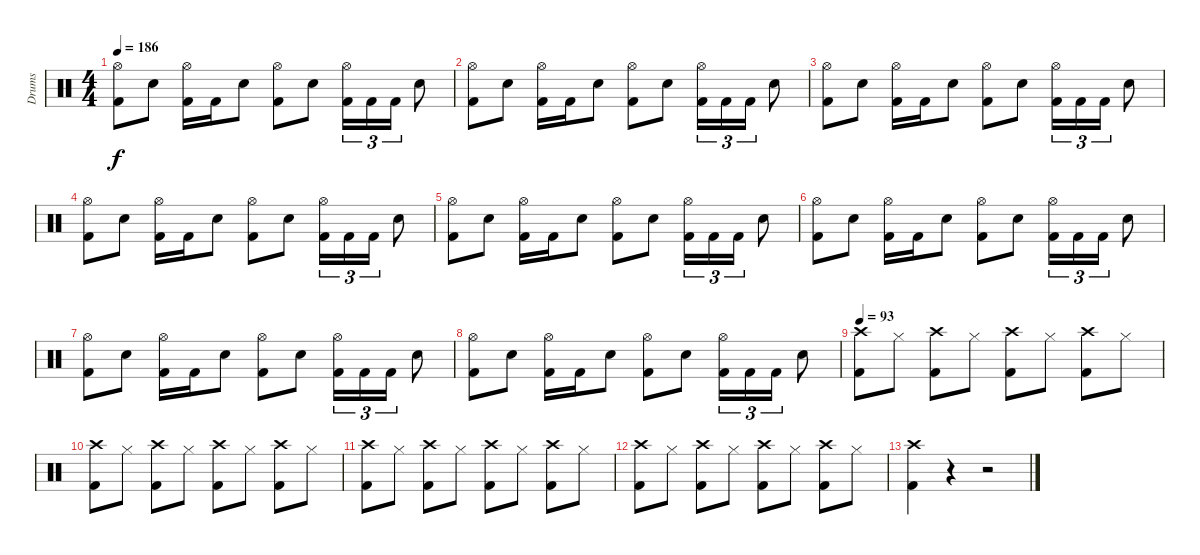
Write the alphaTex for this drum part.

\track ("Drums" "Drums") {instrument percussion}
\staff {score}
\articulation defaults
\ts (4 4)
\tempo 186
\clef neutral
\ks c
("Hi-Hat (open)" "Kick (hit) 2").8{dy f} "Snare (hit) 2".8 ("Hi-Hat (open)" "Kick (hit) 2").16 "Kick (hit) 2".16 "Snare (hit) 2".8 ("Hi-Hat (open)" "Kick (hit) 2").8 "Snare (hit) 2".8 ("Hi-Hat (open)" "Kick (hit) 2").16{tu (3 2)} "Kick (hit) 2".16{tu (3 2)} "Kick (hit) 2".16{tu (3 2)} "Snare (hit) 2".8 |
("Hi-Hat (open)" "Kick (hit) 2").8 "Snare (hit) 2".8 ("Hi-Hat (open)" "Kick (hit) 2").16 "Kick (hit) 2".16 "Snare (hit) 2".8 ("Hi-Hat (open)" "Kick (hit) 2").8 "Snare (hit) 2".8 ("Hi-Hat (open)" "Kick (hit) 2").16{tu (3 2)} "Kick (hit) 2".16{tu (3 2)} "Kick (hit) 2".16{tu (3 2)} "Snare (hit) 2".8 |
("Hi-Hat (open)" "Kick (hit) 2").8 "Snare (hit) 2".8 ("Hi-Hat (open)" "Kick (hit) 2").16 "Kick (hit) 2".16 "Snare (hit) 2".8 ("Hi-Hat (open)" "Kick (hit) 2").8 "Snare (hit) 2".8 ("Hi-Hat (open)" "Kick (hit) 2").16{tu (3 2)} "Kick (hit) 2".16{tu (3 2)} "Kick (hit) 2".16{tu (3 2)} "Snare (hit) 2".8 |
("Hi-Hat (open)" "Kick (hit) 2").8 "Snare (hit) 2".8 ("Hi-Hat (open)" "Kick (hit) 2").16 "Kick (hit) 2".16 "Snare (hit) 2".8 ("Hi-Hat (open)" "Kick (hit) 2").8 "Snare (hit) 2".8 ("Hi-Hat (open)" "Kick (hit) 2").16{tu (3 2)} "Kick (hit) 2".16{tu (3 2)} "Kick (hit) 2".16{tu (3 2)} "Snare (hit) 2".8 |
("Hi-Hat (open)" "Kick (hit) 2").8 "Snare (hit) 2".8 ("Hi-Hat (open)" "Kick (hit) 2").16 "Kick (hit) 2".16 "Snare (hit) 2".8 ("Hi-Hat (open)" "Kick (hit) 2").8 "Snare (hit) 2".8 ("Hi-Hat (open)" "Kick (hit) 2").16{tu (3 2)} "Kick (hit) 2".16{tu (3 2)} "Kick (hit) 2".16{tu (3 2)} "Snare (hit) 2".8 |
("Hi-Hat (open)" "Kick (hit) 2").8 "Snare (hit) 2".8 ("Hi-Hat (open)" "Kick (hit) 2").16 "Kick (hit) 2".16 "Snare (hit) 2".8 ("Hi-Hat (open)" "Kick (hit) 2").8 "Snare (hit) 2".8 ("Hi-Hat (open)" "Kick (hit) 2").16{tu (3 2)} "Kick (hit) 2".16{tu (3 2)} "Kick (hit) 2".16{tu (3 2)} "Snare (hit) 2".8 |
("Hi-Hat (open)" "Kick (hit) 2").8 "Snare (hit) 2".8 ("Hi-Hat (open)" "Kick (hit) 2").16 "Kick (hit) 2".16 "Snare (hit) 2".8 ("Hi-Hat (open)" "Kick (hit) 2").8 "Snare (hit) 2".8 ("Hi-Hat (open)" "Kick (hit) 2").16{tu (3 2)} "Kick (hit) 2".16{tu (3 2)} "Kick (hit) 2".16{tu (3 2)} "Snare (hit) 2".8 |
("Hi-Hat (open)" "Kick (hit) 2").8 "Snare (hit) 2".8 ("Hi-Hat (open)" "Kick (hit) 2").16 "Kick (hit) 2".16 "Snare (hit) 2".8 ("Hi-Hat (open)" "Kick (hit) 2").8 "Snare (hit) 2".8 ("Hi-Hat (open)" "Kick (hit) 2").16{tu (3 2)} "Kick (hit) 2".16{tu (3 2)} "Kick (hit) 2".16{tu (3 2)} "Snare (hit) 2".8 |
\tempo 93
("Crash high (hit)" "Kick (hit) 2").8 "Hi-Hat (closed)".8 ("Crash high (hit)" "Kick (hit) 2").8 "Hi-Hat (closed)".8 ("Crash high (hit)" "Kick (hit) 2").8 "Hi-Hat (closed)".8 ("Crash high (hit)" "Kick (hit) 2").8 "Hi-Hat (closed)".8 |
("Crash high (hit)" "Kick (hit) 2").8 "Hi-Hat (closed)".8 ("Crash high (hit)" "Kick (hit) 2").8 "Hi-Hat (closed)".8 ("Crash high (hit)" "Kick (hit) 2").8 "Hi-Hat (closed)".8 ("Crash high (hit)" "Kick (hit) 2").8 "Hi-Hat (closed)".8 |
("Crash high (hit)" "Kick (hit) 2").8 "Hi-Hat (closed)".8 ("Crash high (hit)" "Kick (hit) 2").8 "Hi-Hat (closed)".8 ("Crash high (hit)" "Kick (hit) 2").8 "Hi-Hat (closed)".8 ("Crash high (hit)" "Kick (hit) 2").8 "Hi-Hat (closed)".8 |
("Crash high (hit)" "Kick (hit) 2").8 "Hi-Hat (closed)".8 ("Crash high (hit)" "Kick (hit) 2").8 "Hi-Hat (closed)".8 ("Crash high (hit)" "Kick (hit) 2").8 "Hi-Hat (closed)".8 ("Crash high (hit)" "Kick (hit) 2").8 "Hi-Hat (closed)".8 |
("Crash high (hit)" "Kick (hit) 2").4 r.4 r.2
